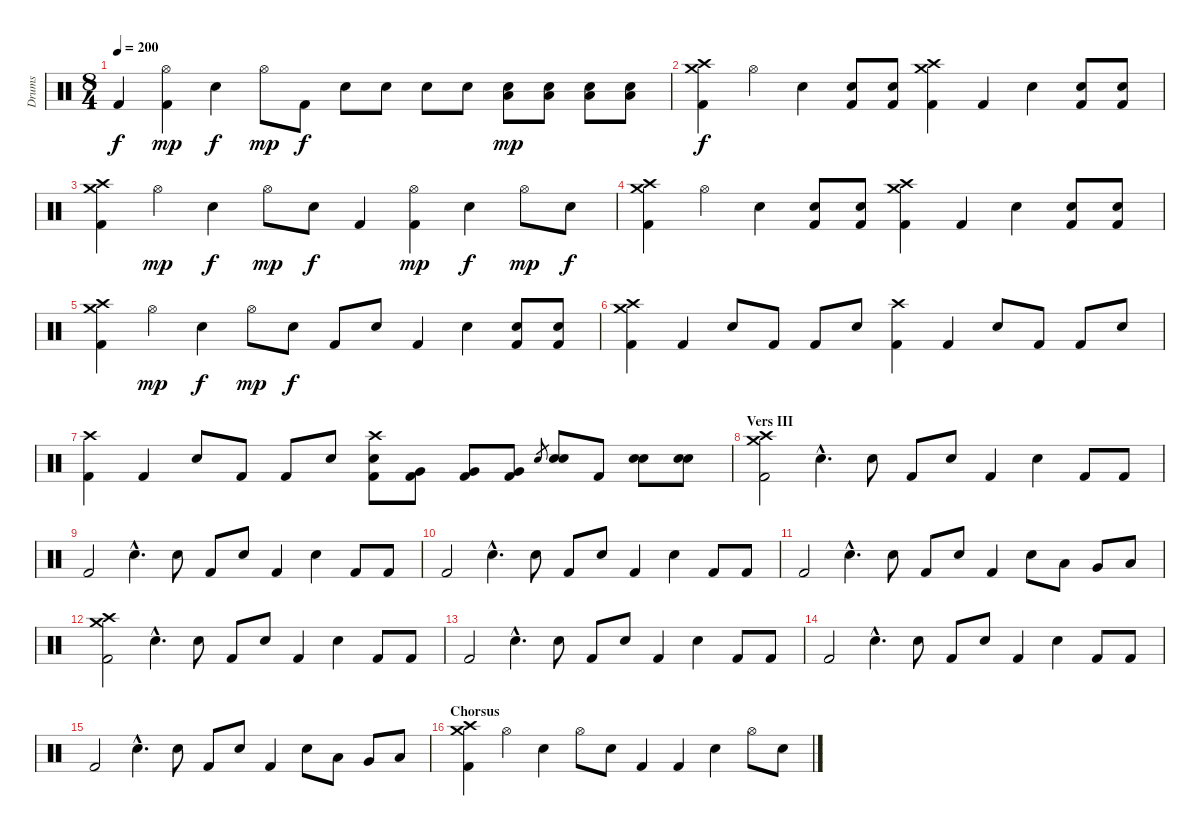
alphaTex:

\track ("Drums" "Drums") {instrument percussion}
\staff {score}
\articulation defaults
\ts (8 4)
\tempo 200
\clef neutral
\ks c "Kick (hit) 2".4{dy f}
("Hi-Hat (open)" "Kick (hit) 2").4{dy mp} "Electric Snare (hit)".4{dy f} "Hi-Hat (open)".8{dy mp} "Kick (hit) 2".8{dy f} "Electric Snare (hit)".8 "Electric Snare (hit)".8 "Electric Snare (hit)".8 "Electric Snare (hit)".8 ("Electric Snare (hit)" "Low Tom (hit)").8{dy mp} ("Electric Snare (hit)" "Low Tom (hit)").8 ("Electric Snare (hit)" "Low Tom (hit)").8 ("Electric Snare (hit)" "Low Tom (hit)").8 |
("Crash high (hit)" "Kick (hit) 2" "Crash medium (hit)").4{dy f} "Hi-Hat (open)".4 "Electric Snare (hit)".4 ("Electric Snare (hit)" "Kick (hit) 2").8 ("Electric Snare (hit)" "Kick (hit) 2").8 ("Crash high (hit)" "Kick (hit) 2" "Crash medium (hit)").4 "Kick (hit) 2".4 "Electric Snare (hit)".4 ("Electric Snare (hit)" "Kick (hit) 2").8 ("Electric Snare (hit)" "Kick (hit) 2").8 |
("Crash high (hit)" "Kick (hit) 2" "Crash medium (hit)").4 "Hi-Hat (open)".4{dy mp} "Electric Snare (hit)".4{dy f} "Hi-Hat (open)".8{dy mp} "Electric Snare (hit)".8{dy f} "Kick (hit) 2".4 ("Hi-Hat (open)" "Kick (hit) 2").4{dy mp} "Electric Snare (hit)".4{dy f} "Hi-Hat (open)".8{dy mp} "Electric Snare (hit)".8{dy f} |
("Crash high (hit)" "Kick (hit) 2" "Crash medium (hit)").4 "Hi-Hat (open)".4 "Electric Snare (hit)".4 ("Electric Snare (hit)" "Kick (hit) 2").8 ("Electric Snare (hit)" "Kick (hit) 2").8 ("Crash high (hit)" "Kick (hit) 2" "Crash medium (hit)").4 "Kick (hit) 2".4 "Electric Snare (hit)".4 ("Electric Snare (hit)" "Kick (hit) 2").8 ("Electric Snare (hit)" "Kick (hit) 2").8 |
("Crash high (hit)" "Kick (hit) 2" "Crash medium (hit)").4 "Hi-Hat (open)".4{dy mp} "Electric Snare (hit)".4{dy f} "Hi-Hat (open)".8{dy mp} "Electric Snare (hit)".8{dy f} "Kick (hit) 2".8 "Electric Snare (hit)".8 "Kick (hit) 2".4 "Electric Snare (hit)".4 ("Electric Snare (hit)" "Kick (hit) 2").8 ("Electric Snare (hit)" "Kick (hit) 2").8 |
("Crash high (hit)" "Kick (hit) 2" "Crash medium (hit)").4 "Kick (hit) 2".4 "Electric Snare (hit)".8 "Kick (hit) 2".8 "Kick (hit) 2".8 "Electric Snare (hit)".8 ("Crash high (hit)" "Kick (hit) 2").4 "Kick (hit) 2".4 "Electric Snare (hit)".8 "Kick (hit) 2".8 "Kick (hit) 2".8 "Electric Snare (hit)".8 |
("Crash high (hit)" "Kick (hit) 2").4 "Kick (hit) 2".4 "Electric Snare (hit)".8 "Kick (hit) 2".8 "Kick (hit) 2".8 "Electric Snare (hit)".8 ("Crash high (hit)" "Kick (hit) 2" "Electric Snare (hit)").8 ("Very Low Tom (hit)" "Kick (hit) 2").8 ("Very Low Tom (hit)" "Kick (hit) 2").8 ("Very Low Tom (hit)" "Kick (hit) 2").8 "Electric Snare (hit)".8{gr} ("Electric Snare (hit)" "Snare (hit) 2").8 "Kick (hit) 2".8 ("Electric Snare (hit)" "Snare (hit) 2").8 ("Electric Snare (hit)" "Snare (hit) 2").8 |
\section ("" "Vers III")
("Crash high (hit)" "Kick (hit) 2" "Crash medium (hit)").2 "Electric Snare (hit)"{hac}.4{d} "Electric Snare (hit)".8 "Kick (hit) 2".8 "Electric Snare (hit)".8 "Kick (hit) 2".4 "Electric Snare (hit)".4 "Kick (hit) 2".8 "Kick (hit) 2".8 |
"Kick (hit) 2".2 "Electric Snare (hit)"{hac}.4{d} "Electric Snare (hit)".8 "Kick (hit) 2".8 "Electric Snare (hit)".8 "Kick (hit) 2".4 "Electric Snare (hit)".4 "Kick (hit) 2".8 "Kick (hit) 2".8 |
"Kick (hit) 2".2 "Electric Snare (hit)"{hac}.4{d} "Electric Snare (hit)".8 "Kick (hit) 2".8 "Electric Snare (hit)".8 "Kick (hit) 2".4 "Electric Snare (hit)".4 "Kick (hit) 2".8 "Kick (hit) 2".8 |
"Kick (hit) 2".2 "Electric Snare (hit)"{hac}.4{d} "Electric Snare (hit)".8 "Kick (hit) 2".8 "Electric Snare (hit)".8 "Kick (hit) 2".4 "Electric Snare (hit)".8 "Low Tom (hit)".8 "Very Low Tom (hit)".8 "Low Floor Tom (hit)".8 |
("Crash high (hit)" "Kick (hit) 2" "Crash medium (hit)").2 "Electric Snare (hit)"{hac}.4{d} "Electric Snare (hit)".8 "Kick (hit) 2".8 "Electric Snare (hit)".8 "Kick (hit) 2".4 "Electric Snare (hit)".4 "Kick (hit) 2".8 "Kick (hit) 2".8 |
"Kick (hit) 2".2 "Electric Snare (hit)"{hac}.4{d} "Electric Snare (hit)".8 "Kick (hit) 2".8 "Electric Snare (hit)".8 "Kick (hit) 2".4 "Electric Snare (hit)".4 "Kick (hit) 2".8 "Kick (hit) 2".8 |
"Kick (hit) 2".2 "Electric Snare (hit)"{hac}.4{d} "Electric Snare (hit)".8 "Kick (hit) 2".8 "Electric Snare (hit)".8 "Kick (hit) 2".4 "Electric Snare (hit)".4 "Kick (hit) 2".8 "Kick (hit) 2".8 |
"Kick (hit) 2".2 "Electric Snare (hit)"{hac}.4{d} "Electric Snare (hit)".8 "Kick (hit) 2".8 "Electric Snare (hit)".8 "Kick (hit) 2".4 "Electric Snare (hit)".8 "Low Tom (hit)".8 "Very Low Tom (hit)".8 "Low Floor Tom (hit)".8 |
\section ("" "Chorsus")
("Crash high (hit)" "Kick (hit) 2" "Crash medium (hit)").4 "Hi-Hat (open)".4 "Electric Snare (hit)".4 "Hi-Hat (open)".8 "Electric Snare (hit)".8 "Kick (hit) 2".4 "Kick (hit) 2".4 "Electric Snare (hit)".4 "Hi-Hat (open)".8 "Electric Snare (hit)".8
